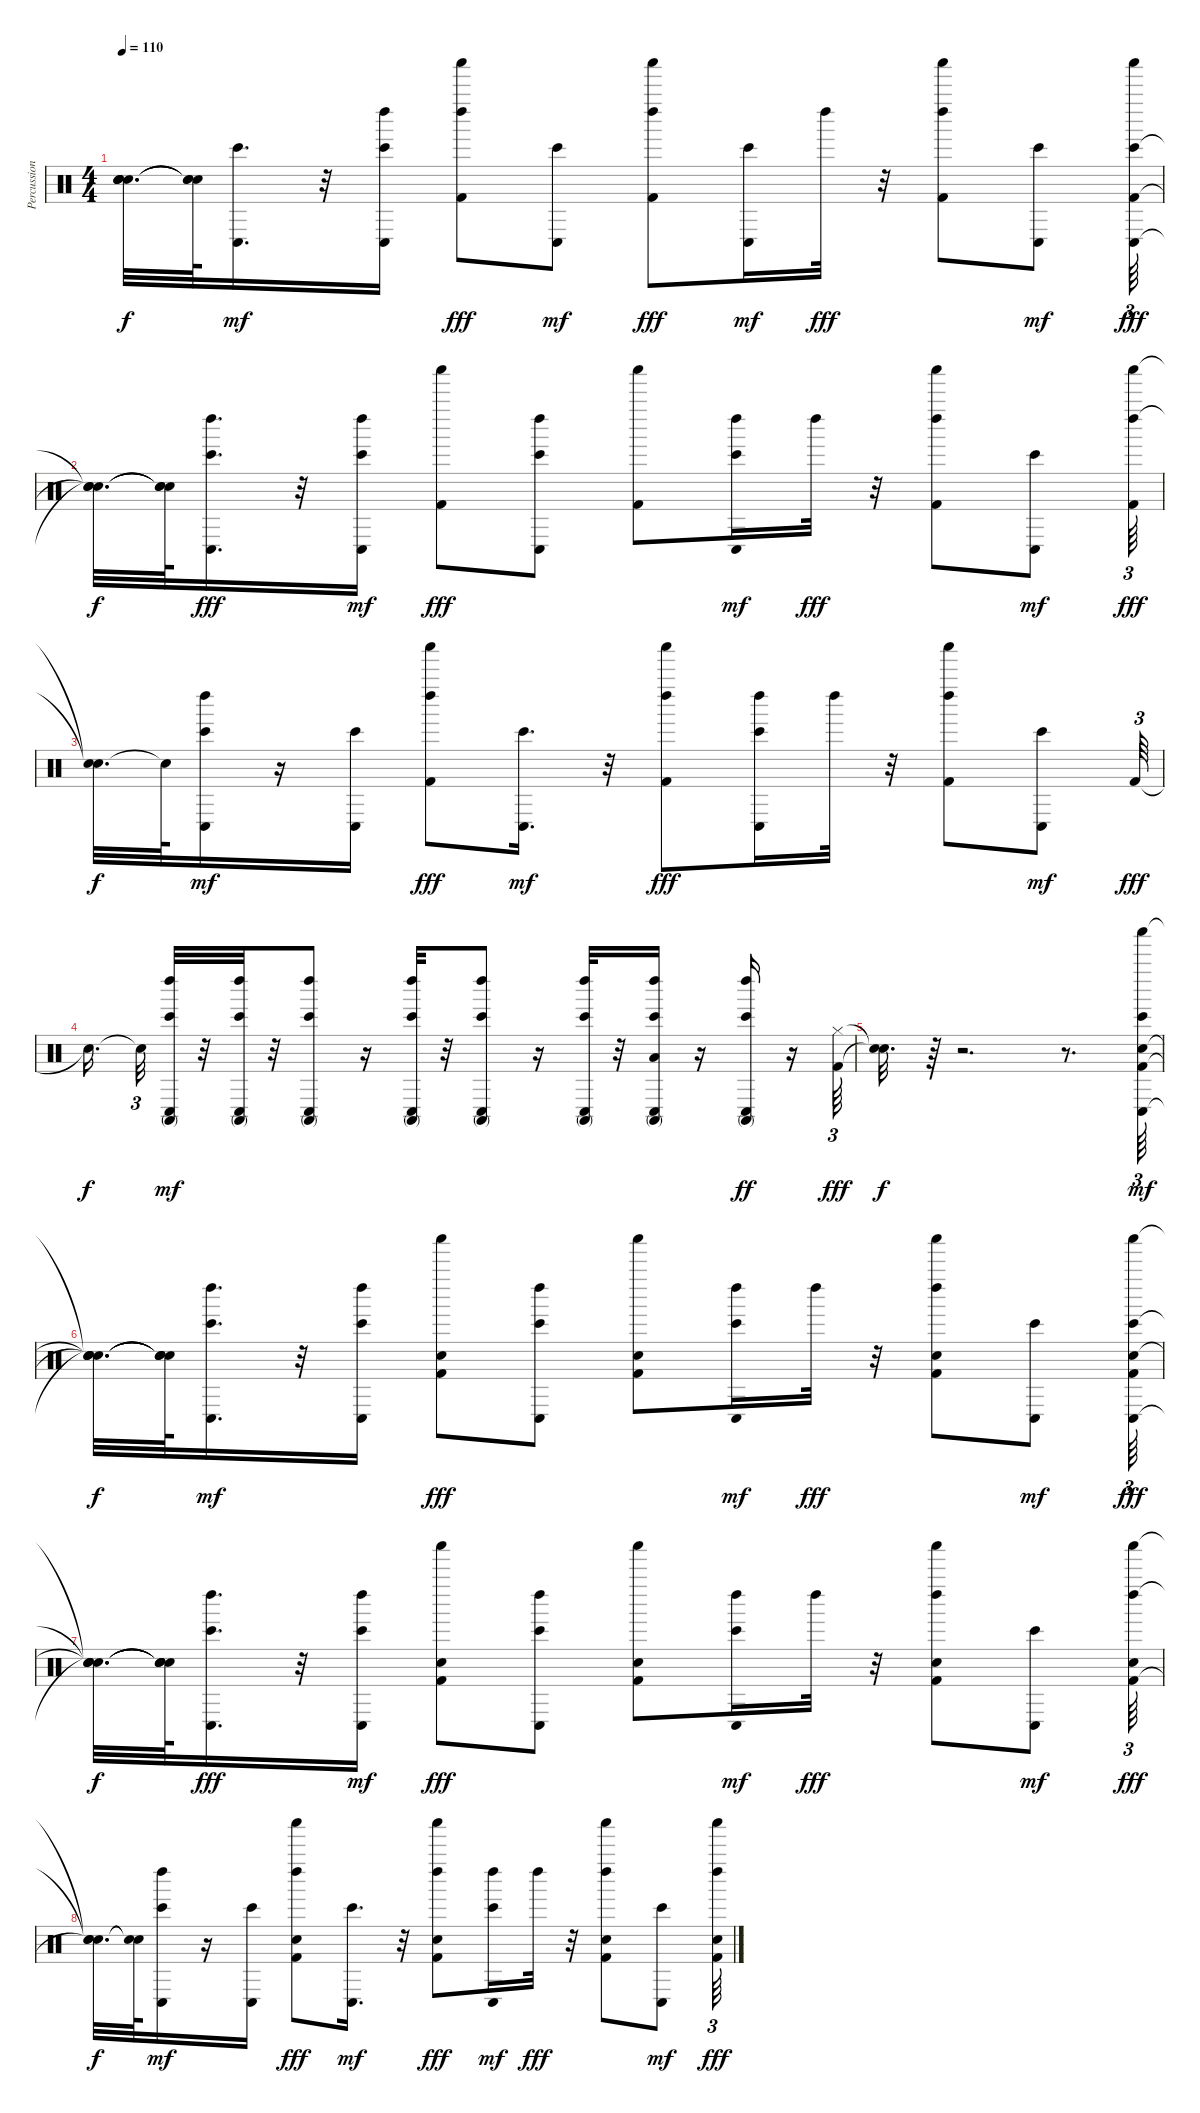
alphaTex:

\track ("Percussion" "Percussion") {instrument percussion}
\staff {score}
\articulation defaults
\ts (4 4)
\tempo 110
\clef neutral
\ks c
("Snare (hit)"{t} "Snare (hit)"{t} "Snare (hit)"{t} "Snare (hit)"{t}).32{d dy f} ("Snare (hit)"{t} "Snare (hit)"{t} "Snare (hit)"{t}).64 ("Bongo High (hit)" "Conga low (hit)").16{d dy mf} r.32 ("Conga low (hit)" "Left Maraca (hit)" "Bongo High (hit)").16 ("Kick (hit) 2" "Left Maraca (hit)" "Shaker (hit)").8{dy fff} ("Conga low (hit)" "Bongo High (hit)").8{dy mf} ("Kick (hit) 2" "Shaker (hit)" "Left Maraca (hit)").8{dy fff} ("Bongo High (hit)" "Conga low (hit)").16{dy mf} "Left Maraca (hit)".32{dy fff} r.32 ("Kick (hit) 2" "Left Maraca (hit)" "Shaker (hit)").8 ("Conga low (hit)" "Bongo High (hit)").8{dy mf} ("Conga low (hit)" "Kick (hit) 2" "Bongo High (hit)" "Shaker (hit)").64{tu (3 2) dy fff} |
("Snare (hit)"{t} "Snare (hit)"{t} "Snare (hit)"{t}).32{d dy f} ("Snare (hit)"{t} "Snare (hit)"{t} "Snare (hit)"{t}).64 ("Bongo High (hit)" "Conga low (hit)" "Left Maraca (hit)").16{d dy fff} r.32 ("Left Maraca (hit)" "Conga low (hit)" "Bongo High (hit)").16{dy mf} ("Kick (hit) 2" "Shaker (hit)").8{dy fff} ("Bongo High (hit)" "Conga low (hit)" "Left Maraca (hit)").8 ("Shaker (hit)" "Kick (hit) 2").8 ("Left Maraca (hit)" "Bongo High (hit)" "Conga low (hit)").16{dy mf} "Left Maraca (hit)".32{dy fff} r.32 ("Left Maraca (hit)" "Kick (hit) 2" "Shaker (hit)").8 ("Bongo High (hit)" "Conga low (hit)").8{dy mf} ("Left Maraca (hit)" "Shaker (hit)" "Kick (hit) 2").64{tu (3 2) dy fff} |
("Snare (hit)"{t} "Snare (hit)"{t}).32{d dy f} "Snare (hit)"{t}.64 ("Left Maraca (hit)" "Bongo High (hit)" "Conga low (hit)").16{dy mf} r.16 ("Conga low (hit)" "Bongo High (hit)").16 ("Kick (hit) 2" "Shaker (hit)" "Left Maraca (hit)").8{dy fff} ("Bongo High (hit)" "Conga low (hit)").16{d dy mf} r.32 ("Kick (hit) 2" "Left Maraca (hit)" "Shaker (hit)").8{dy fff} ("Conga low (hit)" "Bongo High (hit)" "Left Maraca (hit)").16 "Left Maraca (hit)".32 r.32 ("Shaker (hit)" "Left Maraca (hit)" "Kick (hit) 2").8 ("Conga low (hit)" "Bongo High (hit)").8{dy mf} "Kick (hit) 2".64{tu (3 2) dy fff} |
"Snare (hit)"{t}.16{d dy f beam splitsecondary} "Snare (hit)"{t}.32{tu (3 2)} ("Bongo High (hit)" "Conga high (mute)" "Left Maraca (hit)" "Conga low (hit)").32{dy mf} r.32 ("Conga low (hit)" "Conga high (mute)" "Left Maraca (hit)" "Bongo High (hit)").32 r.32 ("Conga high (mute)" "Left Maraca (hit)" "Bongo High (hit)" "Conga low (hit)").8 r.16 ("Bongo High (hit)" "Left Maraca (hit)" "Conga high (mute)" "Conga low (hit)").32 r.32 ("Conga low (hit)" "Conga high (mute)" "Left Maraca (hit)" "Bongo High (hit)").8 r.16 ("Bongo High (hit)" "Left Maraca (hit)" "Conga low (hit)" "Conga high (mute)").32 r.32 ("Conga high (mute)" "Left Maraca (hit)" "Low Tom (hit)" "Bongo High (hit)" "Conga low (hit)").16 r.16 ("Conga low (hit)" "Bongo High (hit)" "Left Maraca (hit)" "Conga high (mute)").16{dy ff} r.16 ("Hi-Hat (closed)" "Kick (hit) 2").64{tu (3 2) dy fff} |
("Snare (hit)"{t} "Snare (hit)"{t}).32{d dy f} r.64 r.2{d} r.8{d} ("Shaker (hit)" "Hand Clap (hit)" "Kick (hit) 2" "Conga low (hit)" "Bongo High (hit)").64{tu (3 2) dy mf} |
("Snare (hit)"{t} "Snare (hit)"{t} "Snare (hit)"{t} "Snare (hit)"{t}).32{d dy f} ("Snare (hit)"{t} "Snare (hit)"{t} "Snare (hit)"{t} "Snare (hit)"{t}).64 ("Left Maraca (hit)" "Conga low (hit)" "Bongo High (hit)").16{d dy mf} r.32 ("Conga low (hit)" "Left Maraca (hit)" "Bongo High (hit)").16 ("Shaker (hit)" "Hand Clap (hit)" "Kick (hit) 2").8{dy fff} ("Bongo High (hit)" "Conga low (hit)" "Left Maraca (hit)").8 ("Shaker (hit)" "Hand Clap (hit)" "Kick (hit) 2").8 ("Bongo High (hit)" "Left Maraca (hit)" "Conga low (hit)").16{dy mf} "Left Maraca (hit)".32{dy fff} r.32 ("Hand Clap (hit)" "Kick (hit) 2" "Left Maraca (hit)" "Shaker (hit)").8 ("Bongo High (hit)" "Conga low (hit)").8{dy mf} ("Hand Clap (hit)" "Bongo High (hit)" "Conga low (hit)" "Shaker (hit)" "Kick (hit) 2").64{tu (3 2) dy fff} |
("Snare (hit)"{t} "Snare (hit)"{t} "Snare (hit)"{t} "Snare (hit)"{t}).32{d dy f} ("Snare (hit)"{t} "Snare (hit)"{t} "Snare (hit)"{t} "Snare (hit)"{t}).64 ("Conga low (hit)" "Bongo High (hit)" "Left Maraca (hit)").16{d dy fff} r.32 ("Left Maraca (hit)" "Conga low (hit)" "Bongo High (hit)").16{dy mf} ("Shaker (hit)" "Kick (hit) 2" "Hand Clap (hit)").8{dy fff} ("Bongo High (hit)" "Conga low (hit)" "Left Maraca (hit)").8 ("Hand Clap (hit)" "Shaker (hit)" "Kick (hit) 2").8 ("Left Maraca (hit)" "Bongo High (hit)" "Conga low (hit)").16{dy mf} "Left Maraca (hit)".32{dy fff} r.32 ("Kick (hit) 2" "Hand Clap (hit)" "Shaker (hit)" "Left Maraca (hit)").8 ("Bongo High (hit)" "Conga low (hit)").8{dy mf} ("Shaker (hit)" "Kick (hit) 2" "Left Maraca (hit)" "Hand Clap (hit)").64{tu (3 2) dy fff} |
("Snare (hit)"{t} "Snare (hit)"{t} "Snare (hit)"{t}).32{d dy f} ("Snare (hit)"{t} "Snare (hit)"{t}).64 ("Conga low (hit)" "Left Maraca (hit)" "Bongo High (hit)").16{dy mf} r.16 ("Bongo High (hit)" "Conga low (hit)").16 ("Shaker (hit)" "Kick (hit) 2" "Hand Clap (hit)" "Left Maraca (hit)").8{dy fff} ("Bongo High (hit)" "Conga low (hit)").16{d dy mf} r.32 ("Shaker (hit)" "Hand Clap (hit)" "Left Maraca (hit)" "Kick (hit) 2").8{dy fff} ("Left Maraca (hit)" "Bongo High (hit)" "Conga low (hit)").16{dy mf} "Left Maraca (hit)".32{dy fff} r.32 ("Kick (hit) 2" "Hand Clap (hit)" "Shaker (hit)" "Left Maraca (hit)").8 ("Conga low (hit)" "Bongo High (hit)").8{dy mf} ("Hand Clap (hit)" "Kick (hit) 2" "Left Maraca (hit)" "Shaker (hit)").64{tu (3 2) dy fff}
